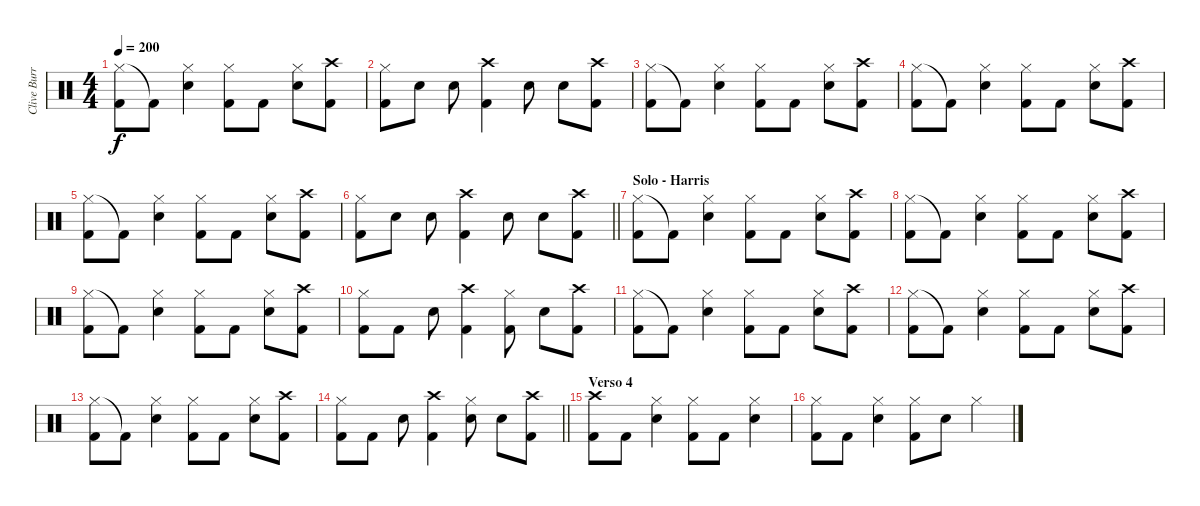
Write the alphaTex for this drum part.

\track ("Clive Burr" "Clive Burr") {instrument percussion}
\staff {score}
\articulation defaults
\ts (4 4)
\tempo 200
\clef neutral
\ks c
("Hi-Hat (closed)" "Kick (hit) 2").8{dy f} "Kick (hit) 2"{t}.8 ("Hi-Hat (closed)" "Snare (hit) 2").4 ("Hi-Hat (closed)" "Kick (hit) 2").8 "Kick (hit) 2".8 ("Hi-Hat (closed)" "Snare (hit) 2").8 ("Crash high (hit)" "Kick (hit) 2").8 |
("Hi-Hat (closed)" "Kick (hit) 2").8 "Snare (hit) 2".8 "Snare (hit) 2".8 ("Crash high (hit)" "Kick (hit) 2").4 "Snare (hit) 2".8 "Snare (hit) 2".8 ("Crash high (hit)" "Kick (hit) 2").8 |
("Hi-Hat (closed)" "Kick (hit) 2").8 "Kick (hit) 2"{t}.8 ("Hi-Hat (closed)" "Snare (hit) 2").4 ("Hi-Hat (closed)" "Kick (hit) 2").8 "Kick (hit) 2".8 ("Hi-Hat (closed)" "Snare (hit) 2").8 ("Crash high (hit)" "Kick (hit) 2").8 |
("Hi-Hat (closed)" "Kick (hit) 2").8 "Kick (hit) 2"{t}.8 ("Hi-Hat (closed)" "Snare (hit) 2").4 ("Hi-Hat (closed)" "Kick (hit) 2").8 "Kick (hit) 2".8 ("Hi-Hat (closed)" "Snare (hit) 2").8 ("Crash high (hit)" "Kick (hit) 2").8 |
("Hi-Hat (closed)" "Kick (hit) 2").8 "Kick (hit) 2"{t}.8 ("Hi-Hat (closed)" "Snare (hit) 2").4 ("Hi-Hat (closed)" "Kick (hit) 2").8 "Kick (hit) 2".8 ("Hi-Hat (closed)" "Snare (hit) 2").8 ("Crash high (hit)" "Kick (hit) 2").8 |
\barLineRight lightlight
("Hi-Hat (closed)" "Kick (hit) 2").8 "Snare (hit) 2".8 "Snare (hit) 2".8 ("Crash high (hit)" "Kick (hit) 2").4 "Snare (hit) 2".8 "Snare (hit) 2".8 ("Crash high (hit)" "Kick (hit) 2").8 |
\section ("" "Solo - Harris")
("Hi-Hat (closed)" "Kick (hit) 2").8 "Kick (hit) 2"{t}.8 ("Hi-Hat (closed)" "Snare (hit) 2").4 ("Hi-Hat (closed)" "Kick (hit) 2").8 "Kick (hit) 2".8 ("Hi-Hat (closed)" "Snare (hit) 2").8 ("Crash high (hit)" "Kick (hit) 2").8 |
("Hi-Hat (closed)" "Kick (hit) 2").8 "Kick (hit) 2"{t}.8 ("Hi-Hat (closed)" "Snare (hit) 2").4 ("Hi-Hat (closed)" "Kick (hit) 2").8 "Kick (hit) 2".8 ("Hi-Hat (closed)" "Snare (hit) 2").8 ("Crash high (hit)" "Kick (hit) 2").8 |
("Hi-Hat (closed)" "Kick (hit) 2").8 "Kick (hit) 2"{t}.8 ("Hi-Hat (closed)" "Snare (hit) 2").4 ("Hi-Hat (closed)" "Kick (hit) 2").8 "Kick (hit) 2".8 ("Hi-Hat (closed)" "Snare (hit) 2").8 ("Crash high (hit)" "Kick (hit) 2").8 |
("Hi-Hat (closed)" "Kick (hit) 2").8 "Kick (hit) 2".8 "Snare (hit) 2".8 ("Crash high (hit)" "Kick (hit) 2").4 ("Hi-Hat (closed)" "Kick (hit) 2").8 "Snare (hit) 2".8 ("Crash high (hit)" "Kick (hit) 2").8 |
("Hi-Hat (closed)" "Kick (hit) 2").8 "Kick (hit) 2"{t}.8 ("Hi-Hat (closed)" "Snare (hit) 2").4 ("Hi-Hat (closed)" "Kick (hit) 2").8 "Kick (hit) 2".8 ("Hi-Hat (closed)" "Snare (hit) 2").8 ("Crash high (hit)" "Kick (hit) 2").8 |
("Hi-Hat (closed)" "Kick (hit) 2").8 "Kick (hit) 2"{t}.8 ("Hi-Hat (closed)" "Snare (hit) 2").4 ("Hi-Hat (closed)" "Kick (hit) 2").8 "Kick (hit) 2".8 ("Hi-Hat (closed)" "Snare (hit) 2").8 ("Crash high (hit)" "Kick (hit) 2").8 |
("Hi-Hat (closed)" "Kick (hit) 2").8 "Kick (hit) 2"{t}.8 ("Hi-Hat (closed)" "Snare (hit) 2").4 ("Hi-Hat (closed)" "Kick (hit) 2").8 "Kick (hit) 2".8 ("Hi-Hat (closed)" "Snare (hit) 2").8 ("Crash high (hit)" "Kick (hit) 2").8 |
\barLineRight lightlight
("Hi-Hat (closed)" "Kick (hit) 2").8 "Kick (hit) 2".8 "Snare (hit) 2".8 ("Crash high (hit)" "Kick (hit) 2").4 ("Hi-Hat (closed)" "Snare (hit)").8 "Snare (hit) 2".8 ("Crash high (hit)" "Kick (hit) 2").8 |
\section ("" "Verso 4")
("Crash high (hit)" "Kick (hit) 2").8 "Kick (hit) 2".8 ("Hi-Hat (closed)" "Snare (hit) 2").4 ("Hi-Hat (closed)" "Kick (hit) 2").8 "Kick (hit) 2".8 ("Hi-Hat (closed)" "Snare (hit) 2").4 |
("Hi-Hat (closed)" "Kick (hit) 2").8 "Kick (hit) 2".8 ("Hi-Hat (closed)" "Snare (hit) 2").4 ("Hi-Hat (closed)" "Kick (hit) 2").8 "Snare (hit) 2".8 "Hi-Hat (closed)".4
